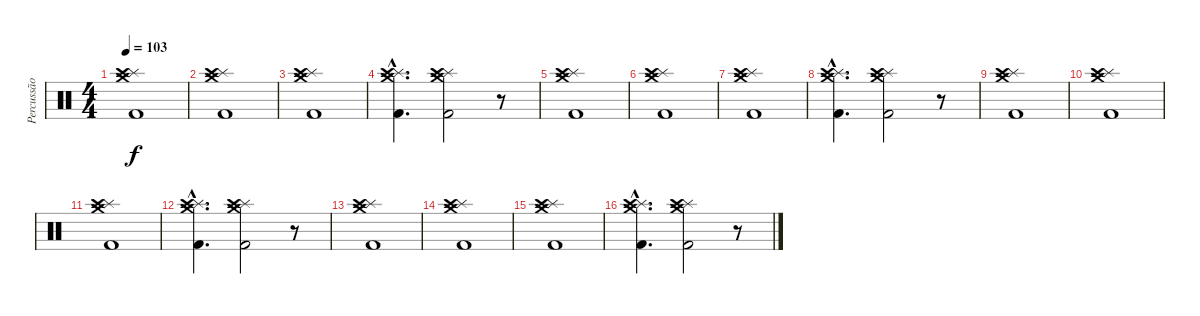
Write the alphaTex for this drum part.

\track ("Percussão" "Percussão") {instrument percussion}
\staff {score}
\articulation defaults
\ts (4 4)
\tempo 103
\clef neutral
\ks c
("Crash medium (hit)" "Splash (hit)" "Crash high (hit)" "Kick (hit) 2").1{dy f} |
("Crash medium (hit)" "Splash (hit)" "Crash high (hit)" "Kick (hit) 2").1 |
("Crash medium (hit)" "Splash (hit)" "Crash high (hit)" "Kick (hit) 2").1 |
("Crash medium (hit)"{hac} "Splash (hit)"{hac} "Crash high (hit)"{hac} "Kick (hit) 2"{hac}).4{d} ("Crash medium (hit)" "Splash (hit)" "Crash high (hit)" "Kick (hit) 2").2 r.8 |
("Crash medium (hit)" "Splash (hit)" "Crash high (hit)" "Kick (hit) 2").1 |
("Crash medium (hit)" "Splash (hit)" "Crash high (hit)" "Kick (hit) 2").1 |
("Crash medium (hit)" "Splash (hit)" "Crash high (hit)" "Kick (hit) 2").1 |
("Crash medium (hit)"{hac} "Splash (hit)"{hac} "Crash high (hit)"{hac} "Kick (hit) 2"{hac}).4{d} ("Crash medium (hit)" "Splash (hit)" "Crash high (hit)" "Kick (hit) 2").2 r.8 |
("Crash medium (hit)" "Splash (hit)" "Crash high (hit)" "Kick (hit) 2").1 |
("Crash medium (hit)" "Splash (hit)" "Crash high (hit)" "Kick (hit) 2").1 |
("Crash medium (hit)" "Splash (hit)" "Crash high (hit)" "Kick (hit) 2").1 |
("Crash medium (hit)"{hac} "Splash (hit)"{hac} "Crash high (hit)"{hac} "Kick (hit) 2"{hac}).4{d} ("Crash medium (hit)" "Splash (hit)" "Crash high (hit)" "Kick (hit) 2").2 r.8 |
("Crash medium (hit)" "Splash (hit)" "Crash high (hit)" "Kick (hit) 2").1 |
("Crash medium (hit)" "Splash (hit)" "Crash high (hit)" "Kick (hit) 2").1 |
("Crash medium (hit)" "Splash (hit)" "Crash high (hit)" "Kick (hit) 2").1 |
("Crash medium (hit)"{hac} "Splash (hit)"{hac} "Crash high (hit)"{hac} "Kick (hit) 2"{hac}).4{d} ("Crash medium (hit)" "Splash (hit)" "Crash high (hit)" "Kick (hit) 2").2 r.8
